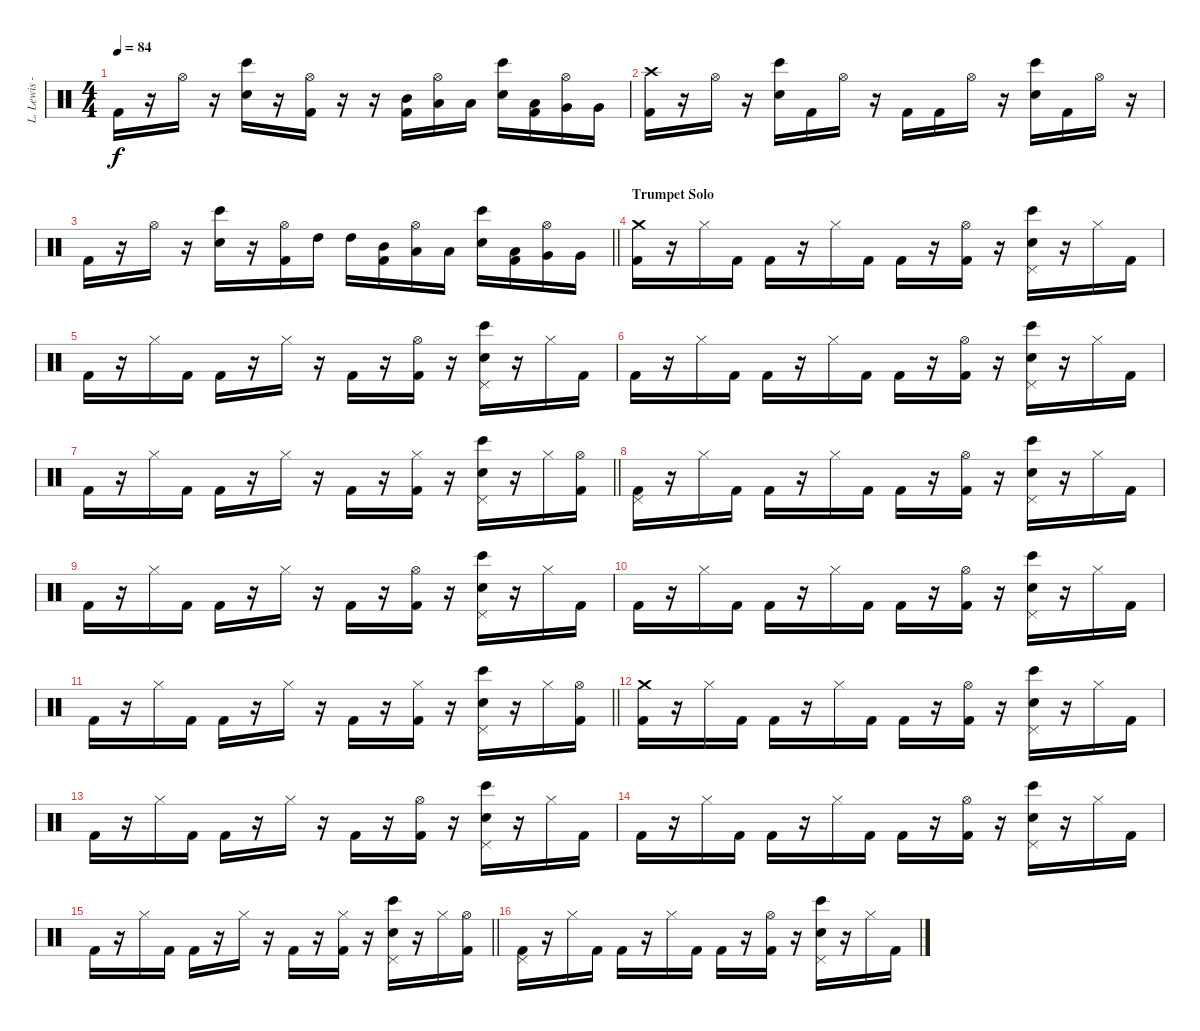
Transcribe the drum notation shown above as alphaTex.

\track ("L. Lewis - Drums" "L. Lewis -") {instrument percussion}
\staff {score}
\articulation defaults
\ts (4 4)
\tempo 84
\clef neutral
\ks c "Kick (hit) 2".16{dy f}
r.16 "Hi-Hat (open)".16 r.16 ("Electric Snare (hit)" "Bongo High (hit)").16 r.16 ("Hi-Hat (open)" "Kick (hit) 2").16 r.16 r.16 ("Mid Tom (hit)" "Kick (hit) 2").16 ("Hi-Hat (open)" "Low Tom (hit)").16 "Low Tom (hit)".16 ("Electric Snare (hit)" "Bongo High (hit)").16 ("Low Tom (hit)" "Kick (hit) 2").16 ("Hi-Hat (open)" "Very Low Tom (hit)").16 "Very Low Tom (hit)".16 |
("Crash high (hit)" "Kick (hit) 2").16 r.16 "Hi-Hat (open)".16 r.16 ("Electric Snare (hit)" "Bongo High (hit)").16 "Kick (hit) 2".16 "Hi-Hat (open)".16 r.16 "Kick (hit) 2".16 "Kick (hit) 2".16 "Hi-Hat (open)".16 r.16 ("Electric Snare (hit)" "Bongo High (hit)").16 "Kick (hit) 2".16 "Hi-Hat (open)".16 r.16 |
\barLineRight lightlight "Kick (hit) 2".16
r.16 "Hi-Hat (open)".16 r.16 ("Electric Snare (hit)" "Bongo High (hit)").16 r.16 ("Hi-Hat (open)" "Kick (hit) 2").16 "High Tom (hit)".16 "High Tom (hit)".16 ("Mid Tom (hit)" "Kick (hit) 2").16 ("Hi-Hat (open)" "Low Tom (hit)").16 "Low Tom (hit)".16 ("Electric Snare (hit)" "Bongo High (hit)").16 ("Low Tom (hit)" "Kick (hit) 2").16 ("Hi-Hat (open)" "Very Low Tom (hit)").16 "Very Low Tom (hit)".16 |
\section ("" "Trumpet Solo")
("Crash medium (hit)" "Kick (hit) 2").16 r.16 "Hi-Hat (closed)".16 "Kick (hit) 2".16 "Kick (hit) 2".16 r.16 "Hi-Hat (closed)".16 "Kick (hit) 2".16 "Kick (hit) 2".16 r.16 ("Hi-Hat (open)" "Kick (hit) 2").16 r.16 ("Pedal Hi-Hat (hit)" "Electric Snare (hit)" "Bongo High (hit)").16 r.16 "Hi-Hat (closed)".16 "Kick (hit) 2".16 |
"Kick (hit) 2".16 r.16 "Hi-Hat (closed)".16 "Kick (hit) 2".16 "Kick (hit) 2".16 r.16 "Hi-Hat (closed)".16 r.16 "Kick (hit) 2".16 r.16 ("Hi-Hat (open)" "Kick (hit) 2").16 r.16 ("Pedal Hi-Hat (hit)" "Electric Snare (hit)" "Bongo High (hit)").16 r.16 "Hi-Hat (closed)".16 "Kick (hit) 2".16 |
"Kick (hit) 2".16 r.16 "Hi-Hat (closed)".16 "Kick (hit) 2".16 "Kick (hit) 2".16 r.16 "Hi-Hat (closed)".16 "Kick (hit) 2".16 "Kick (hit) 2".16 r.16 ("Hi-Hat (open)" "Kick (hit) 2").16 r.16 ("Pedal Hi-Hat (hit)" "Electric Snare (hit)" "Bongo High (hit)").16 r.16 "Hi-Hat (closed)".16 "Kick (hit) 2".16 |
\barLineRight lightlight "Kick (hit) 2".16
r.16 "Hi-Hat (closed)".16 "Kick (hit) 2".16 "Kick (hit) 2".16 r.16 "Hi-Hat (closed)".16 r.16 "Kick (hit) 2".16 r.16 ("Hi-Hat (closed)" "Kick (hit) 2").16 r.16 ("Pedal Hi-Hat (hit)" "Electric Snare (hit)" "Bongo High (hit)").16 r.16 "Hi-Hat (closed)".16 ("Hi-Hat (open)" "Kick (hit) 2").16 |
("Pedal Hi-Hat (hit)" "Kick (hit) 2").16 r.16 "Hi-Hat (closed)".16 "Kick (hit) 2".16 "Kick (hit) 2".16 r.16 "Hi-Hat (closed)".16 "Kick (hit) 2".16 "Kick (hit) 2".16 r.16 ("Hi-Hat (open)" "Kick (hit) 2").16 r.16 ("Pedal Hi-Hat (hit)" "Electric Snare (hit)" "Bongo High (hit)").16 r.16 "Hi-Hat (closed)".16 "Kick (hit) 2".16 |
"Kick (hit) 2".16 r.16 "Hi-Hat (closed)".16 "Kick (hit) 2".16 "Kick (hit) 2".16 r.16 "Hi-Hat (closed)".16 r.16 "Kick (hit) 2".16 r.16 ("Hi-Hat (open)" "Kick (hit) 2").16 r.16 ("Pedal Hi-Hat (hit)" "Electric Snare (hit)" "Bongo High (hit)").16 r.16 "Hi-Hat (closed)".16 "Kick (hit) 2".16 |
"Kick (hit) 2".16 r.16 "Hi-Hat (closed)".16 "Kick (hit) 2".16 "Kick (hit) 2".16 r.16 "Hi-Hat (closed)".16 "Kick (hit) 2".16 "Kick (hit) 2".16 r.16 ("Hi-Hat (open)" "Kick (hit) 2").16 r.16 ("Pedal Hi-Hat (hit)" "Electric Snare (hit)" "Bongo High (hit)").16 r.16 "Hi-Hat (closed)".16 "Kick (hit) 2".16 |
\barLineRight lightlight "Kick (hit) 2".16
r.16 "Hi-Hat (closed)".16 "Kick (hit) 2".16 "Kick (hit) 2".16 r.16 "Hi-Hat (closed)".16 r.16 "Kick (hit) 2".16 r.16 ("Hi-Hat (closed)" "Kick (hit) 2").16 r.16 ("Pedal Hi-Hat (hit)" "Electric Snare (hit)" "Bongo High (hit)").16 r.16 "Hi-Hat (closed)".16 ("Hi-Hat (open)" "Kick (hit) 2").16 |
("Crash medium (hit)" "Kick (hit) 2").16 r.16 "Hi-Hat (closed)".16 "Kick (hit) 2".16 "Kick (hit) 2".16 r.16 "Hi-Hat (closed)".16 "Kick (hit) 2".16 "Kick (hit) 2".16 r.16 ("Hi-Hat (open)" "Kick (hit) 2").16 r.16 ("Pedal Hi-Hat (hit)" "Electric Snare (hit)" "Bongo High (hit)").16 r.16 "Hi-Hat (closed)".16 "Kick (hit) 2".16 |
"Kick (hit) 2".16 r.16 "Hi-Hat (closed)".16 "Kick (hit) 2".16 "Kick (hit) 2".16 r.16 "Hi-Hat (closed)".16 r.16 "Kick (hit) 2".16 r.16 ("Hi-Hat (open)" "Kick (hit) 2").16 r.16 ("Pedal Hi-Hat (hit)" "Electric Snare (hit)" "Bongo High (hit)").16 r.16 "Hi-Hat (closed)".16 "Kick (hit) 2".16 |
"Kick (hit) 2".16 r.16 "Hi-Hat (closed)".16 "Kick (hit) 2".16 "Kick (hit) 2".16 r.16 "Hi-Hat (closed)".16 "Kick (hit) 2".16 "Kick (hit) 2".16 r.16 ("Hi-Hat (open)" "Kick (hit) 2").16 r.16 ("Pedal Hi-Hat (hit)" "Electric Snare (hit)" "Bongo High (hit)").16 r.16 "Hi-Hat (closed)".16 "Kick (hit) 2".16 |
\barLineRight lightlight "Kick (hit) 2".16
r.16 "Hi-Hat (closed)".16 "Kick (hit) 2".16 "Kick (hit) 2".16 r.16 "Hi-Hat (closed)".16 r.16 "Kick (hit) 2".16 r.16 ("Hi-Hat (closed)" "Kick (hit) 2").16 r.16 ("Pedal Hi-Hat (hit)" "Electric Snare (hit)" "Bongo High (hit)").16 r.16 "Hi-Hat (closed)".16 ("Hi-Hat (open)" "Kick (hit) 2").16 |
("Pedal Hi-Hat (hit)" "Kick (hit) 2").16 r.16 "Hi-Hat (closed)".16 "Kick (hit) 2".16 "Kick (hit) 2".16 r.16 "Hi-Hat (closed)".16 "Kick (hit) 2".16 "Kick (hit) 2".16 r.16 ("Hi-Hat (open)" "Kick (hit) 2").16 r.16 ("Pedal Hi-Hat (hit)" "Electric Snare (hit)" "Bongo High (hit)").16 r.16 "Hi-Hat (closed)".16 "Kick (hit) 2".16
